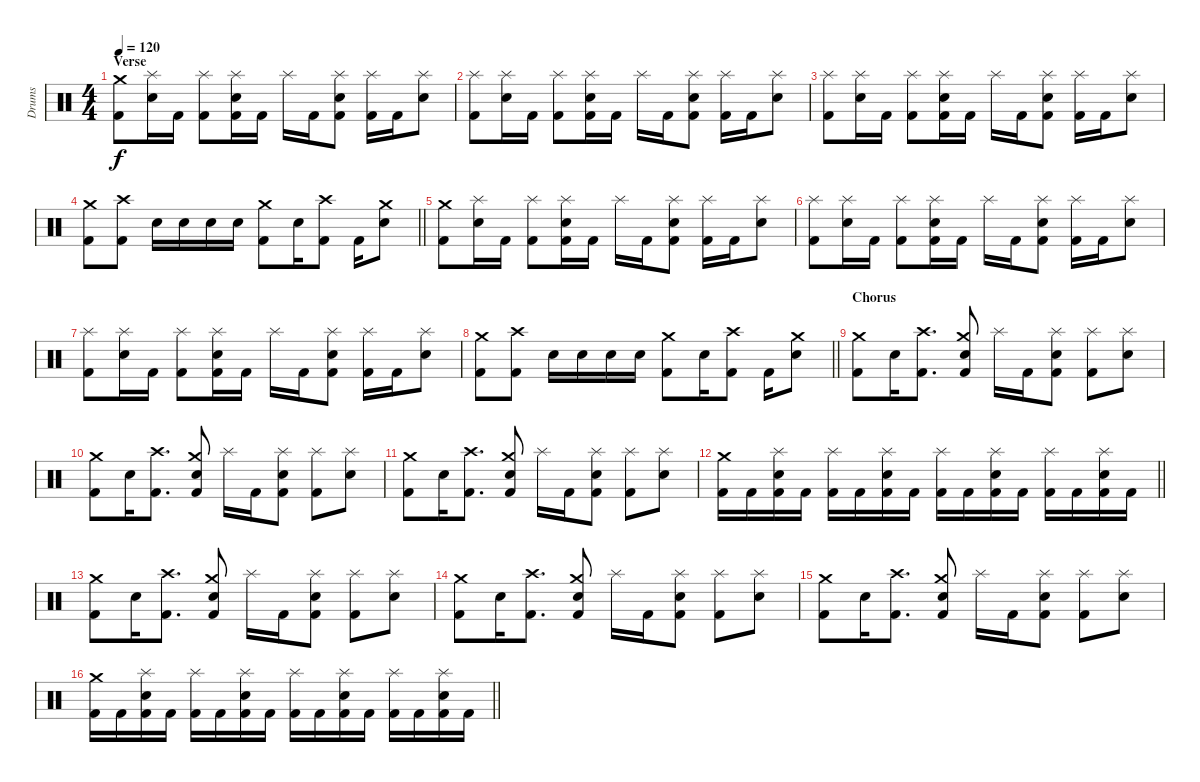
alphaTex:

\track ("Drums" "Drums") {instrument percussion}
\staff {score}
\articulation defaults
\ts (4 4)
\section ("" "Verse")
\tempo 120
\clef neutral
\ks c
("Kick (hit) 2" "Crash medium (hit)").8{dy f} ("Snare (hit) 2" "Splash (hit)").16 "Kick (hit) 2".16 ("Kick (hit) 2" "Splash (hit)").8 ("Kick (hit) 2" "Snare (hit) 2" "Splash (hit)").16 "Kick (hit) 2".16 "Splash (hit)".16 "Kick (hit) 2".16 ("Kick (hit) 2" "Snare (hit) 2" "Splash (hit)").8 ("Kick (hit) 2" "Splash (hit)").16 "Kick (hit) 2".16 ("Snare (hit) 2" "Splash (hit)").8 |
("Kick (hit) 2" "Splash (hit)").8 ("Snare (hit) 2" "Splash (hit)").16 "Kick (hit) 2".16 ("Kick (hit) 2" "Splash (hit)").8 ("Kick (hit) 2" "Snare (hit) 2" "Splash (hit)").16 "Kick (hit) 2".16 "Splash (hit)".16 "Kick (hit) 2".16 ("Kick (hit) 2" "Snare (hit) 2" "Splash (hit)").8 ("Kick (hit) 2" "Splash (hit)").16 "Kick (hit) 2".16 ("Snare (hit) 2" "Splash (hit)").8 |
("Kick (hit) 2" "Splash (hit)").8 ("Snare (hit) 2" "Splash (hit)").16 "Kick (hit) 2".16 ("Kick (hit) 2" "Splash (hit)").8 ("Kick (hit) 2" "Snare (hit) 2" "Splash (hit)").16 "Kick (hit) 2".16 "Splash (hit)".16 "Kick (hit) 2".16 ("Kick (hit) 2" "Snare (hit) 2" "Splash (hit)").8 ("Kick (hit) 2" "Splash (hit)").16 "Kick (hit) 2".16 ("Snare (hit) 2" "Splash (hit)").8 |
\barLineRight lightlight
("Kick (hit) 2" "Crash medium (hit)").8 ("Kick (hit) 2" "Crash high (hit)").8 "Snare (hit) 2".16 "Snare (hit) 2".16 "Snare (hit) 2".16 "Snare (hit) 2".16 ("Kick (hit) 2" "Crash medium (hit)").8 "Snare (hit) 2".16 ("Kick (hit) 2" "Crash high (hit)").8 "Kick (hit) 2".16 ("Snare (hit) 2" "Crash medium (hit)").8 |
\section ("" "")
("Kick (hit) 2" "Crash medium (hit)").8 ("Snare (hit) 2" "Splash (hit)").16 "Kick (hit) 2".16 ("Kick (hit) 2" "Splash (hit)").8 ("Kick (hit) 2" "Snare (hit) 2" "Splash (hit)").16 "Kick (hit) 2".16 "Splash (hit)".16 "Kick (hit) 2".16 ("Kick (hit) 2" "Snare (hit) 2" "Splash (hit)").8 ("Kick (hit) 2" "Splash (hit)").16 "Kick (hit) 2".16 ("Snare (hit) 2" "Splash (hit)").8 |
("Kick (hit) 2" "Splash (hit)").8 ("Snare (hit) 2" "Splash (hit)").16 "Kick (hit) 2".16 ("Kick (hit) 2" "Splash (hit)").8 ("Kick (hit) 2" "Snare (hit) 2" "Splash (hit)").16 "Kick (hit) 2".16 "Splash (hit)".16 "Kick (hit) 2".16 ("Kick (hit) 2" "Snare (hit) 2" "Splash (hit)").8 ("Kick (hit) 2" "Splash (hit)").16 "Kick (hit) 2".16 ("Snare (hit) 2" "Splash (hit)").8 |
("Kick (hit) 2" "Splash (hit)").8 ("Snare (hit) 2" "Splash (hit)").16 "Kick (hit) 2".16 ("Kick (hit) 2" "Splash (hit)").8 ("Kick (hit) 2" "Snare (hit) 2" "Splash (hit)").16 "Kick (hit) 2".16 "Splash (hit)".16 "Kick (hit) 2".16 ("Kick (hit) 2" "Snare (hit) 2" "Splash (hit)").8 ("Kick (hit) 2" "Splash (hit)").16 "Kick (hit) 2".16 ("Snare (hit) 2" "Splash (hit)").8 |
\barLineRight lightlight
("Kick (hit) 2" "Crash medium (hit)").8 ("Kick (hit) 2" "Crash high (hit)").8 "Snare (hit) 2".16 "Snare (hit) 2".16 "Snare (hit) 2".16 "Snare (hit) 2".16 ("Kick (hit) 2" "Crash medium (hit)").8 "Snare (hit) 2".16 ("Kick (hit) 2" "Crash high (hit)").8 "Kick (hit) 2".16 ("Snare (hit) 2" "Crash medium (hit)").8 |
\section ("" "Chorus")
("Kick (hit) 2" "Crash medium (hit)").8 "Snare (hit) 2".16 ("Kick (hit) 2" "Crash high (hit)").8{d} ("Kick (hit) 2" "Snare (hit) 2" "Crash medium (hit)").8 "Splash (hit)".16 "Kick (hit) 2".16 ("Kick (hit) 2" "Snare (hit) 2" "Splash (hit)").8 ("Kick (hit) 2" "Splash (hit)").8 ("Snare (hit) 2" "Splash (hit)").8 |
("Kick (hit) 2" "Crash medium (hit)").8 "Snare (hit) 2".16 ("Kick (hit) 2" "Crash high (hit)").8{d} ("Kick (hit) 2" "Snare (hit) 2" "Crash medium (hit)").8 "Splash (hit)".16 "Kick (hit) 2".16 ("Kick (hit) 2" "Snare (hit) 2" "Splash (hit)").8 ("Kick (hit) 2" "Splash (hit)").8 ("Snare (hit) 2" "Splash (hit)").8 |
("Kick (hit) 2" "Crash medium (hit)").8 "Snare (hit) 2".16 ("Kick (hit) 2" "Crash high (hit)").8{d} ("Kick (hit) 2" "Snare (hit) 2" "Crash medium (hit)").8 "Splash (hit)".16 "Kick (hit) 2".16 ("Kick (hit) 2" "Snare (hit) 2" "Splash (hit)").8 ("Kick (hit) 2" "Splash (hit)").8 ("Snare (hit) 2" "Splash (hit)").8 |
\barLineRight lightlight
("Kick (hit) 2" "Crash medium (hit)").16 "Kick (hit) 2".16 ("Kick (hit) 2" "Snare (hit) 2" "Splash (hit)").16 "Kick (hit) 2".16 ("Kick (hit) 2" "Splash (hit)").16 "Kick (hit) 2".16 ("Kick (hit) 2" "Snare (hit) 2" "Splash (hit)").16 "Kick (hit) 2".16 ("Kick (hit) 2" "Splash (hit)").16 "Kick (hit) 2".16 ("Kick (hit) 2" "Snare (hit) 2" "Splash (hit)").16 "Kick (hit) 2".16 ("Kick (hit) 2" "Splash (hit)").16 "Kick (hit) 2".16 ("Kick (hit) 2" "Snare (hit) 2" "Splash (hit)").16 "Kick (hit) 2".16 |
\section ("" "")
("Kick (hit) 2" "Crash medium (hit)").8 "Snare (hit) 2".16 ("Kick (hit) 2" "Crash high (hit)").8{d} ("Kick (hit) 2" "Snare (hit) 2" "Crash medium (hit)").8 "Splash (hit)".16 "Kick (hit) 2".16 ("Kick (hit) 2" "Snare (hit) 2" "Splash (hit)").8 ("Kick (hit) 2" "Splash (hit)").8 ("Snare (hit) 2" "Splash (hit)").8 |
("Kick (hit) 2" "Crash medium (hit)").8 "Snare (hit) 2".16 ("Kick (hit) 2" "Crash high (hit)").8{d} ("Kick (hit) 2" "Snare (hit) 2" "Crash medium (hit)").8 "Splash (hit)".16 "Kick (hit) 2".16 ("Kick (hit) 2" "Snare (hit) 2" "Splash (hit)").8 ("Kick (hit) 2" "Splash (hit)").8 ("Snare (hit) 2" "Splash (hit)").8 |
("Kick (hit) 2" "Crash medium (hit)").8 "Snare (hit) 2".16 ("Kick (hit) 2" "Crash high (hit)").8{d} ("Kick (hit) 2" "Snare (hit) 2" "Crash medium (hit)").8 "Splash (hit)".16 "Kick (hit) 2".16 ("Kick (hit) 2" "Snare (hit) 2" "Splash (hit)").8 ("Kick (hit) 2" "Splash (hit)").8 ("Snare (hit) 2" "Splash (hit)").8 |
\barLineRight lightlight
("Kick (hit) 2" "Crash medium (hit)").16 "Kick (hit) 2".16 ("Kick (hit) 2" "Snare (hit) 2" "Splash (hit)").16 "Kick (hit) 2".16 ("Kick (hit) 2" "Splash (hit)").16 "Kick (hit) 2".16 ("Kick (hit) 2" "Snare (hit) 2" "Splash (hit)").16 "Kick (hit) 2".16 ("Kick (hit) 2" "Splash (hit)").16 "Kick (hit) 2".16 ("Kick (hit) 2" "Snare (hit) 2" "Splash (hit)").16 "Kick (hit) 2".16 ("Kick (hit) 2" "Splash (hit)").16 "Kick (hit) 2".16 ("Kick (hit) 2" "Snare (hit) 2" "Splash (hit)").16 "Kick (hit) 2".16
